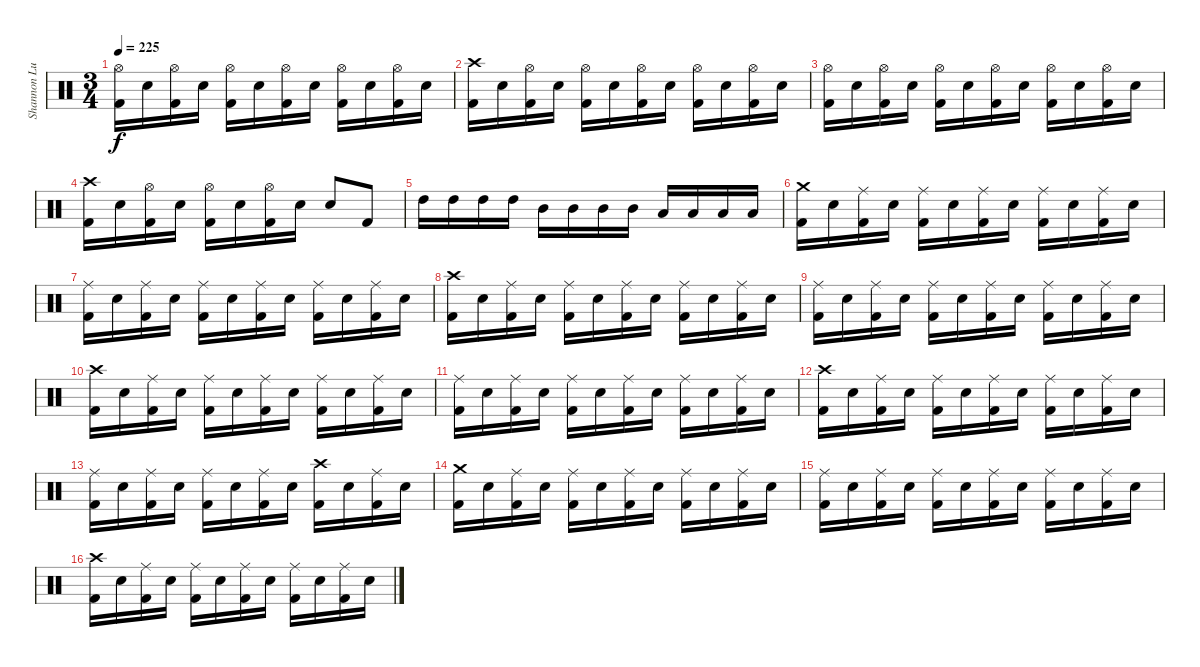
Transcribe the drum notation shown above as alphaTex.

\track ("Shannon Lucas" "Shannon Lu") {instrument percussion}
\staff {score}
\articulation defaults
\ts (3 4)
\tempo 225
\clef neutral
\ks c
("Hi-Hat (open)" "Kick (hit) 2").16{dy f} "Electric Snare (hit)".16 ("Hi-Hat (open)" "Kick (hit) 2").16 "Electric Snare (hit)".16 ("Hi-Hat (open)" "Kick (hit) 2").16 "Electric Snare (hit)".16 ("Hi-Hat (open)" "Kick (hit) 2").16 "Electric Snare (hit)".16 ("Hi-Hat (open)" "Kick (hit) 2").16 "Electric Snare (hit)".16 ("Hi-Hat (open)" "Kick (hit) 2").16 "Electric Snare (hit)".16 |
("Crash high (hit)" "Kick (hit) 2").16 "Electric Snare (hit)".16 ("Hi-Hat (open)" "Kick (hit) 2").16 "Electric Snare (hit)".16 ("Hi-Hat (open)" "Kick (hit) 2").16 "Electric Snare (hit)".16 ("Hi-Hat (open)" "Kick (hit) 2").16 "Electric Snare (hit)".16 ("Hi-Hat (open)" "Kick (hit) 2").16 "Electric Snare (hit)".16 ("Hi-Hat (open)" "Kick (hit) 2").16 "Electric Snare (hit)".16 |
("Hi-Hat (open)" "Kick (hit) 2").16 "Electric Snare (hit)".16 ("Hi-Hat (open)" "Kick (hit) 2").16 "Electric Snare (hit)".16 ("Hi-Hat (open)" "Kick (hit) 2").16 "Electric Snare (hit)".16 ("Hi-Hat (open)" "Kick (hit) 2").16 "Electric Snare (hit)".16 ("Hi-Hat (open)" "Kick (hit) 2").16 "Electric Snare (hit)".16 ("Hi-Hat (open)" "Kick (hit) 2").16 "Electric Snare (hit)".16 |
("Crash high (hit)" "Kick (hit) 2").16 "Electric Snare (hit)".16 ("Hi-Hat (open)" "Kick (hit) 2").16 "Electric Snare (hit)".16 ("Hi-Hat (open)" "Kick (hit) 2").16 "Electric Snare (hit)".16 ("Hi-Hat (open)" "Kick (hit) 2").16 "Electric Snare (hit)".16 "Electric Snare (hit)".8 "Kick (hit) 2".8 |
"High Tom (hit)".16 "High Tom (hit)".16 "High Tom (hit)".16 "High Tom (hit)".16 "Mid Tom (hit)".16 "Mid Tom (hit)".16 "Mid Tom (hit)".16 "Mid Tom (hit)".16 "Low Tom (hit)".16 "Low Tom (hit)".16 "Low Tom (hit)".16 "Low Tom (hit)".16 |
("Crash medium (hit)" "Kick (hit) 2").16 "Electric Snare (hit)".16 ("Ride (middle)" "Kick (hit) 2").16 "Electric Snare (hit)".16 ("Ride (middle)" "Kick (hit) 2").16 "Electric Snare (hit)".16 ("Ride (middle)" "Kick (hit) 2").16 "Electric Snare (hit)".16 ("Ride (middle)" "Kick (hit) 2").16 "Electric Snare (hit)".16 ("Ride (middle)" "Kick (hit) 2").16 "Electric Snare (hit)".16 |
("Ride (middle)" "Kick (hit) 2").16 "Electric Snare (hit)".16 ("Ride (middle)" "Kick (hit) 2").16 "Electric Snare (hit)".16 ("Ride (middle)" "Kick (hit) 2").16 "Electric Snare (hit)".16 ("Ride (middle)" "Kick (hit) 2").16 "Electric Snare (hit)".16 ("Ride (middle)" "Kick (hit) 2").16 "Electric Snare (hit)".16 ("Ride (middle)" "Kick (hit) 2").16 "Electric Snare (hit)".16 |
("Crash high (hit)" "Kick (hit) 2").16 "Electric Snare (hit)".16 ("Ride (middle)" "Kick (hit) 2").16 "Electric Snare (hit)".16 ("Ride (middle)" "Kick (hit) 2").16 "Electric Snare (hit)".16 ("Ride (middle)" "Kick (hit) 2").16 "Electric Snare (hit)".16 ("Ride (middle)" "Kick (hit) 2").16 "Electric Snare (hit)".16 ("Ride (middle)" "Kick (hit) 2").16 "Electric Snare (hit)".16 |
("Ride (middle)" "Kick (hit) 2").16 "Electric Snare (hit)".16 ("Ride (middle)" "Kick (hit) 2").16 "Electric Snare (hit)".16 ("Ride (middle)" "Kick (hit) 2").16 "Electric Snare (hit)".16 ("Ride (middle)" "Kick (hit) 2").16 "Electric Snare (hit)".16 ("Ride (middle)" "Kick (hit) 2").16 "Electric Snare (hit)".16 ("Ride (middle)" "Kick (hit) 2").16 "Electric Snare (hit)".16 |
("Crash high (hit)" "Kick (hit) 2").16 "Electric Snare (hit)".16 ("Ride (middle)" "Kick (hit) 2").16 "Electric Snare (hit)".16 ("Ride (middle)" "Kick (hit) 2").16 "Electric Snare (hit)".16 ("Ride (middle)" "Kick (hit) 2").16 "Electric Snare (hit)".16 ("Ride (middle)" "Kick (hit) 2").16 "Electric Snare (hit)".16 ("Ride (middle)" "Kick (hit) 2").16 "Electric Snare (hit)".16 |
("Ride (middle)" "Kick (hit) 2").16 "Electric Snare (hit)".16 ("Ride (middle)" "Kick (hit) 2").16 "Electric Snare (hit)".16 ("Ride (middle)" "Kick (hit) 2").16 "Electric Snare (hit)".16 ("Ride (middle)" "Kick (hit) 2").16 "Electric Snare (hit)".16 ("Ride (middle)" "Kick (hit) 2").16 "Electric Snare (hit)".16 ("Ride (middle)" "Kick (hit) 2").16 "Electric Snare (hit)".16 |
("Crash high (hit)" "Kick (hit) 2").16 "Electric Snare (hit)".16 ("Ride (middle)" "Kick (hit) 2").16 "Electric Snare (hit)".16 ("Ride (middle)" "Kick (hit) 2").16 "Electric Snare (hit)".16 ("Ride (middle)" "Kick (hit) 2").16 "Electric Snare (hit)".16 ("Ride (middle)" "Kick (hit) 2").16 "Electric Snare (hit)".16 ("Ride (middle)" "Kick (hit) 2").16 "Electric Snare (hit)".16 |
("Ride (middle)" "Kick (hit) 2").16 "Electric Snare (hit)".16 ("Ride (middle)" "Kick (hit) 2").16 "Electric Snare (hit)".16 ("Ride (middle)" "Kick (hit) 2").16 "Electric Snare (hit)".16 ("Ride (middle)" "Kick (hit) 2").16 "Electric Snare (hit)".16 ("Crash high (hit)" "Kick (hit) 2").16 "Electric Snare (hit)".16 ("Ride (middle)" "Kick (hit) 2").16 "Electric Snare (hit)".16 |
("Crash medium (hit)" "Kick (hit) 2").16 "Electric Snare (hit)".16 ("Ride (middle)" "Kick (hit) 2").16 "Electric Snare (hit)".16 ("Ride (middle)" "Kick (hit) 2").16 "Electric Snare (hit)".16 ("Ride (middle)" "Kick (hit) 2").16 "Electric Snare (hit)".16 ("Ride (middle)" "Kick (hit) 2").16 "Electric Snare (hit)".16 ("Ride (middle)" "Kick (hit) 2").16 "Electric Snare (hit)".16 |
("Ride (middle)" "Kick (hit) 2").16 "Electric Snare (hit)".16 ("Ride (middle)" "Kick (hit) 2").16 "Electric Snare (hit)".16 ("Ride (middle)" "Kick (hit) 2").16 "Electric Snare (hit)".16 ("Ride (middle)" "Kick (hit) 2").16 "Electric Snare (hit)".16 ("Ride (middle)" "Kick (hit) 2").16 "Electric Snare (hit)".16 ("Ride (middle)" "Kick (hit) 2").16 "Electric Snare (hit)".16 |
("Crash high (hit)" "Kick (hit) 2").16 "Electric Snare (hit)".16 ("Ride (middle)" "Kick (hit) 2").16 "Electric Snare (hit)".16 ("Ride (middle)" "Kick (hit) 2").16 "Electric Snare (hit)".16 ("Ride (middle)" "Kick (hit) 2").16 "Electric Snare (hit)".16 ("Ride (middle)" "Kick (hit) 2").16 "Electric Snare (hit)".16 ("Ride (middle)" "Kick (hit) 2").16 "Electric Snare (hit)".16
